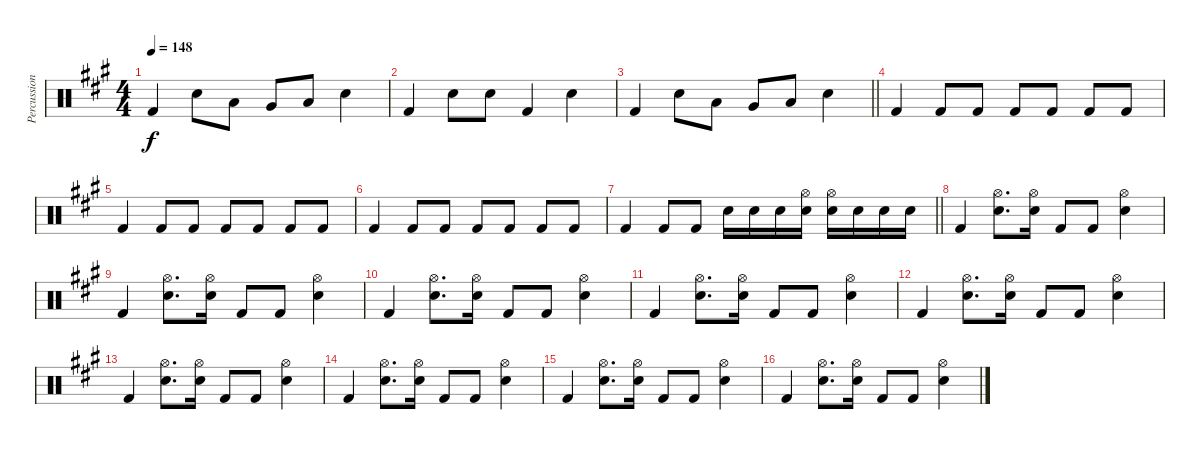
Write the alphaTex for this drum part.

\track ("Percussion" "Percussion") {instrument percussion}
\staff {score}
\articulation defaults
\ts (4 4)
\tempo 148
\clef neutral
\ks a "Kick (hit) 2".4{dy f} "Electric Snare (hit)".8 "Low Tom (hit)".8 "Very Low Tom (hit)".8 "Low Floor Tom (hit)".8 "Electric Snare (hit)".4
|
"Kick (hit) 2".4 "Electric Snare (hit)".8 "Electric Snare (hit)".8 "Kick (hit) 2".4 "Electric Snare (hit)".4 |
\barLineRight lightlight "Kick (hit) 2".4 "Electric Snare (hit)".8 "Low Tom (hit)".8 "Very Low Tom (hit)".8 "Low Floor Tom (hit)".8 "Electric Snare (hit)".4
|
"Kick (hit) 2".4 "Kick (hit) 2".8 "Kick (hit) 2".8 "Kick (hit) 2".8 "Kick (hit) 2".8 "Kick (hit) 2".8 "Kick (hit) 2".8 |
"Kick (hit) 2".4 "Kick (hit) 2".8 "Kick (hit) 2".8 "Kick (hit) 2".8 "Kick (hit) 2".8 "Kick (hit) 2".8 "Kick (hit) 2".8 |
"Kick (hit) 2".4 "Kick (hit) 2".8 "Kick (hit) 2".8 "Kick (hit) 2".8 "Kick (hit) 2".8 "Kick (hit) 2".8 "Kick (hit) 2".8 |
\barLineRight lightlight "Kick (hit) 2".4 "Kick (hit) 2".8 "Kick (hit) 2".8 "Electric Snare (hit)".16 "Electric Snare (hit)".16 "Electric Snare (hit)".16
("Hi-Hat (open)" "Electric Snare (hit)").16 ("Hi-Hat (open)" "Electric Snare (hit)").16 "Electric Snare (hit)".16 "Electric Snare (hit)".16 "Electric Snare (hit)".16 |
"Kick (hit) 2".4 ("Hi-Hat (open)" "Electric Snare (hit)").8{d} ("Hi-Hat (open)" "Electric Snare (hit)").16 "Kick (hit) 2".8 "Kick (hit) 2".8 ("Hi-Hat (open)" "Electric Snare (hit)").4 |
"Kick (hit) 2".4 ("Hi-Hat (open)" "Electric Snare (hit)").8{d} ("Hi-Hat (open)" "Electric Snare (hit)").16 "Kick (hit) 2".8 "Kick (hit) 2".8 ("Hi-Hat (open)" "Electric Snare (hit)").4 |
"Kick (hit) 2".4 ("Hi-Hat (open)" "Electric Snare (hit)").8{d} ("Hi-Hat (open)" "Electric Snare (hit)").16 "Kick (hit) 2".8 "Kick (hit) 2".8 ("Hi-Hat (open)" "Electric Snare (hit)").4 |
"Kick (hit) 2".4 ("Hi-Hat (open)" "Electric Snare (hit)").8{d} ("Hi-Hat (open)" "Electric Snare (hit)").16 "Kick (hit) 2".8 "Kick (hit) 2".8 ("Hi-Hat (open)" "Electric Snare (hit)").4 |
"Kick (hit) 2".4 ("Hi-Hat (open)" "Electric Snare (hit)").8{d} ("Hi-Hat (open)" "Electric Snare (hit)").16 "Kick (hit) 2".8 "Kick (hit) 2".8 ("Hi-Hat (open)" "Electric Snare (hit)").4 |
"Kick (hit) 2".4 ("Hi-Hat (open)" "Electric Snare (hit)").8{d} ("Hi-Hat (open)" "Electric Snare (hit)").16 "Kick (hit) 2".8 "Kick (hit) 2".8 ("Hi-Hat (open)" "Electric Snare (hit)").4 |
"Kick (hit) 2".4 ("Hi-Hat (open)" "Electric Snare (hit)").8{d} ("Hi-Hat (open)" "Electric Snare (hit)").16 "Kick (hit) 2".8 "Kick (hit) 2".8 ("Hi-Hat (open)" "Electric Snare (hit)").4 |
"Kick (hit) 2".4 ("Hi-Hat (open)" "Electric Snare (hit)").8{d} ("Hi-Hat (open)" "Electric Snare (hit)").16 "Kick (hit) 2".8 "Kick (hit) 2".8 ("Hi-Hat (open)" "Electric Snare (hit)").4 |
"Kick (hit) 2".4 ("Hi-Hat (open)" "Electric Snare (hit)").8{d} ("Hi-Hat (open)" "Electric Snare (hit)").16 "Kick (hit) 2".8 "Kick (hit) 2".8 ("Hi-Hat (open)" "Electric Snare (hit)").4
